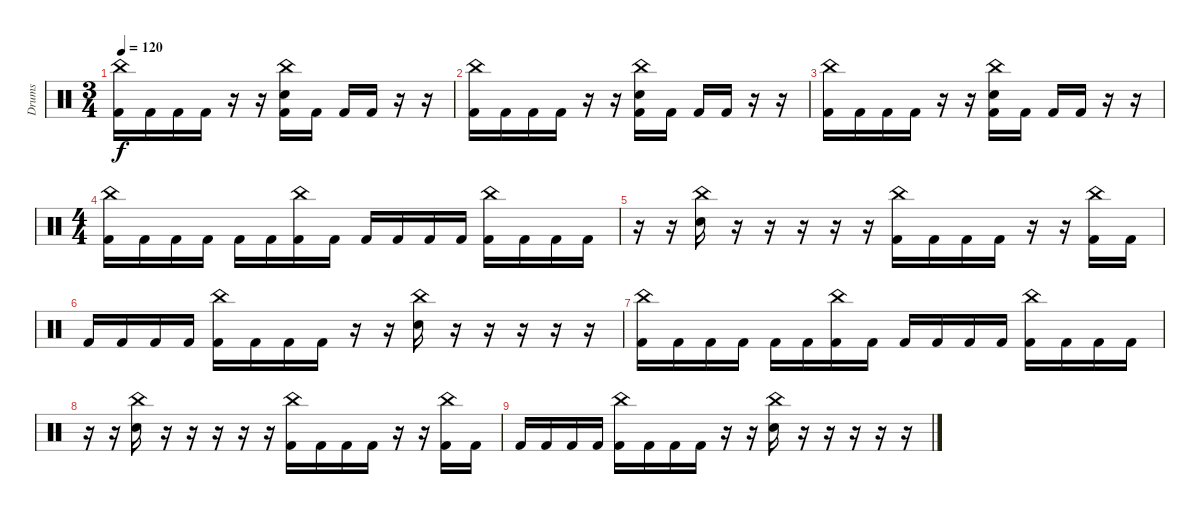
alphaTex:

\track ("Drums" "Drums") {instrument percussion}
\staff {score}
\articulation defaults
\ts (3 4)
\tempo 120
\clef neutral
\ks c
("China (hit)" "Kick (hit) 2").16{dy f} "Kick (hit) 2".16 "Kick (hit) 2".16 "Kick (hit) 2".16 r.16 r.16 ("China (hit)" "Electric Snare (hit)" "Kick (hit) 2").16 "Kick (hit) 2".16 "Kick (hit) 2".16 "Kick (hit) 2".16 r.16 r.16 |
("China (hit)" "Kick (hit) 2").16 "Kick (hit) 2".16 "Kick (hit) 2".16 "Kick (hit) 2".16 r.16 r.16 ("China (hit)" "Electric Snare (hit)" "Kick (hit) 2").16 "Kick (hit) 2".16 "Kick (hit) 2".16 "Kick (hit) 2".16 r.16 r.16 |
("China (hit)" "Kick (hit) 2").16 "Kick (hit) 2".16 "Kick (hit) 2".16 "Kick (hit) 2".16 r.16 r.16 ("China (hit)" "Electric Snare (hit)" "Kick (hit) 2").16 "Kick (hit) 2".16 "Kick (hit) 2".16 "Kick (hit) 2".16 r.16 r.16 |
\ts (4 4)
("China (hit)" "Kick (hit) 2").16 "Kick (hit) 2".16 "Kick (hit) 2".16 "Kick (hit) 2".16 "Kick (hit) 2".16 "Kick (hit) 2".16 ("China (hit)" "Kick (hit) 2").16 "Kick (hit) 2".16 "Kick (hit) 2".16 "Kick (hit) 2".16 "Kick (hit) 2".16 "Kick (hit) 2".16 ("China (hit)" "Kick (hit) 2").16 "Kick (hit) 2".16 "Kick (hit) 2".16 "Kick (hit) 2".16 |
r.16 r.16 ("China (hit)" "Electric Snare (hit)").16 r.16 r.16 r.16 r.16 r.16 ("China (hit)" "Kick (hit) 2").16 "Kick (hit) 2".16 "Kick (hit) 2".16 "Kick (hit) 2".16 r.16 r.16 ("China (hit)" "Kick (hit) 2").16 "Kick (hit) 2".16 |
"Kick (hit) 2".16 "Kick (hit) 2".16 "Kick (hit) 2".16 "Kick (hit) 2".16 ("China (hit)" "Kick (hit) 2").16 "Kick (hit) 2".16 "Kick (hit) 2".16 "Kick (hit) 2".16 r.16 r.16 ("China (hit)" "Electric Snare (hit)").16 r.16 r.16 r.16 r.16 r.16 |
("China (hit)" "Kick (hit) 2").16 "Kick (hit) 2".16 "Kick (hit) 2".16 "Kick (hit) 2".16 "Kick (hit) 2".16 "Kick (hit) 2".16 ("China (hit)" "Kick (hit) 2").16 "Kick (hit) 2".16 "Kick (hit) 2".16 "Kick (hit) 2".16 "Kick (hit) 2".16 "Kick (hit) 2".16 ("China (hit)" "Kick (hit) 2").16 "Kick (hit) 2".16 "Kick (hit) 2".16 "Kick (hit) 2".16 |
r.16 r.16 ("China (hit)" "Electric Snare (hit)").16 r.16 r.16 r.16 r.16 r.16 ("China (hit)" "Kick (hit) 2").16 "Kick (hit) 2".16 "Kick (hit) 2".16 "Kick (hit) 2".16 r.16 r.16 ("China (hit)" "Kick (hit) 2").16 "Kick (hit) 2".16 |
"Kick (hit) 2".16 "Kick (hit) 2".16 "Kick (hit) 2".16 "Kick (hit) 2".16 ("China (hit)" "Kick (hit) 2").16 "Kick (hit) 2".16 "Kick (hit) 2".16 "Kick (hit) 2".16 r.16 r.16 ("China (hit)" "Electric Snare (hit)").16 r.16 r.16 r.16 r.16 r.16
